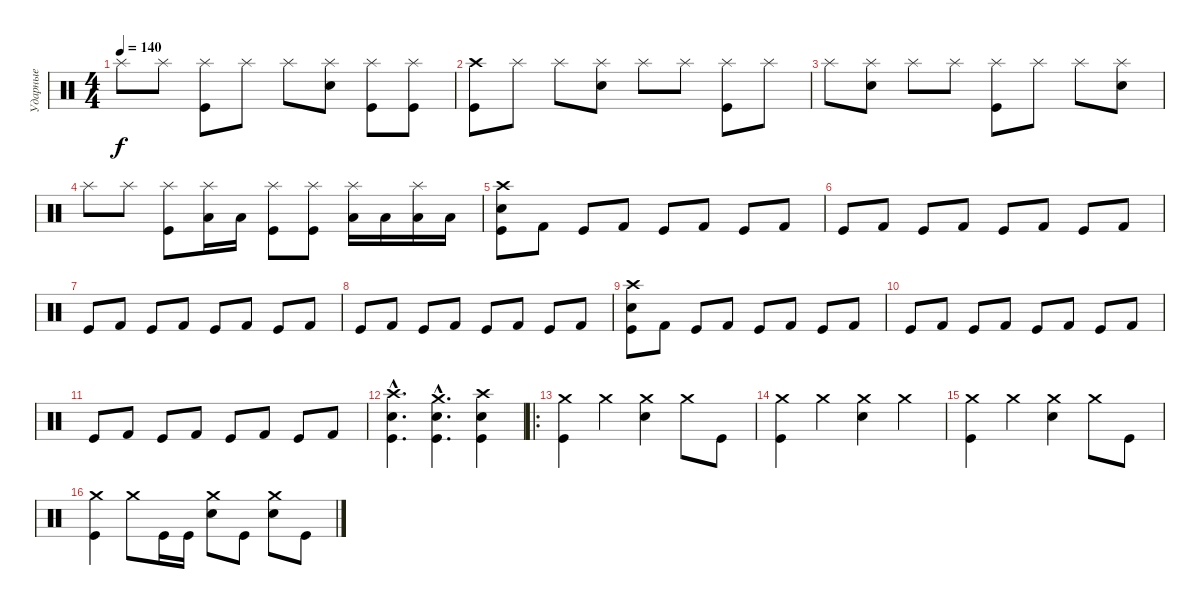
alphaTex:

\track ("Ударные" "Ударные") {instrument percussion}
\staff {score}
\articulation defaults
\ts (4 4)
\tempo 140
\clef neutral
\ks c "Splash (hit)".8{dy f} "Splash (hit)".8
("Kick (hit)" "Splash (hit)").8 "Splash (hit)".8 "Splash (hit)".8 ("Snare (hit) 2" "Splash (hit)").8 ("Kick (hit)" "Splash (hit)").8 ("Kick (hit)" "Splash (hit)").8 |
("Kick (hit)" "Crash high (hit)").8 "Splash (hit)".8 "Splash (hit)".8 ("Snare (hit) 2" "Splash (hit)").8 "Splash (hit)".8 "Splash (hit)".8 ("Kick (hit)" "Splash (hit)").8 "Splash (hit)".8 |
"Splash (hit)".8 ("Snare (hit) 2" "Splash (hit)").8 "Splash (hit)".8 "Splash (hit)".8 ("Kick (hit)" "Splash (hit)").8 "Splash (hit)".8 "Splash (hit)".8 ("Snare (hit) 2" "Splash (hit)").8 |
"Splash (hit)".8 "Splash (hit)".8 ("Kick (hit)" "Splash (hit)").8 ("Low Tom (hit)" "Splash (hit)").16 "Low Tom (hit)".16 ("Kick (hit)" "Splash (hit)").8 ("Kick (hit)" "Splash (hit)").8 ("Low Tom (hit)" "Splash (hit)").16 "Low Tom (hit)".16 ("Low Tom (hit)" "Splash (hit)").16 "Low Tom (hit)".16 |
("Kick (hit)" "Snare (hit) 2" "Crash high (hit)").8 "Kick (hit) 2".8 "Kick (hit)".8 "Kick (hit) 2".8 "Kick (hit)".8 "Kick (hit) 2".8 "Kick (hit)".8 "Kick (hit) 2".8 |
"Kick (hit)".8 "Kick (hit) 2".8 "Kick (hit)".8 "Kick (hit) 2".8 "Kick (hit)".8 "Kick (hit) 2".8 "Kick (hit)".8 "Kick (hit) 2".8 |
"Kick (hit)".8 "Kick (hit) 2".8 "Kick (hit)".8 "Kick (hit) 2".8 "Kick (hit)".8 "Kick (hit) 2".8 "Kick (hit)".8 "Kick (hit) 2".8 |
"Kick (hit)".8 "Kick (hit) 2".8 "Kick (hit)".8 "Kick (hit) 2".8 "Kick (hit)".8 "Kick (hit) 2".8 "Kick (hit)".8 "Kick (hit) 2".8 |
("Kick (hit)" "Snare (hit) 2" "Crash high (hit)").8 "Kick (hit) 2".8 "Kick (hit)".8 "Kick (hit) 2".8 "Kick (hit)".8 "Kick (hit) 2".8 "Kick (hit)".8 "Kick (hit) 2".8 |
"Kick (hit)".8 "Kick (hit) 2".8 "Kick (hit)".8 "Kick (hit) 2".8 "Kick (hit)".8 "Kick (hit) 2".8 "Kick (hit)".8 "Kick (hit) 2".8 |
"Kick (hit)".8 "Kick (hit) 2".8 "Kick (hit)".8 "Kick (hit) 2".8 "Kick (hit)".8 "Kick (hit) 2".8 "Kick (hit)".8 "Kick (hit) 2".8 |
("Kick (hit)"{hac} "Snare (hit) 2"{hac} "Crash high (hit)"{hac}).4{d} ("Kick (hit)"{hac} "Snare (hit) 2"{hac} "Crash medium (hit)"{hac}).4{d} ("Kick (hit)" "Snare (hit) 2" "Crash high (hit)").4 |
\ro
("Kick (hit)" "Crash medium (hit)").4 "Crash medium (hit)".4 ("Snare (hit) 2" "Crash medium (hit)").4 "Crash medium (hit)".8 "Kick (hit)".8 |
("Kick (hit)" "Crash medium (hit)").4 "Crash medium (hit)".4 ("Snare (hit) 2" "Crash medium (hit)").4 "Crash medium (hit)".4 |
("Kick (hit)" "Crash medium (hit)").4 "Crash medium (hit)".4 ("Snare (hit) 2" "Crash medium (hit)").4 "Crash medium (hit)".8 "Kick (hit)".8 |
("Kick (hit)" "Crash medium (hit)").4 "Crash medium (hit)".8 "Kick (hit)".16 "Kick (hit)".16 ("Snare (hit) 2" "Crash medium (hit)").8 "Kick (hit)".8 ("Snare (hit) 2" "Crash medium (hit)").8 "Kick (hit)".8
